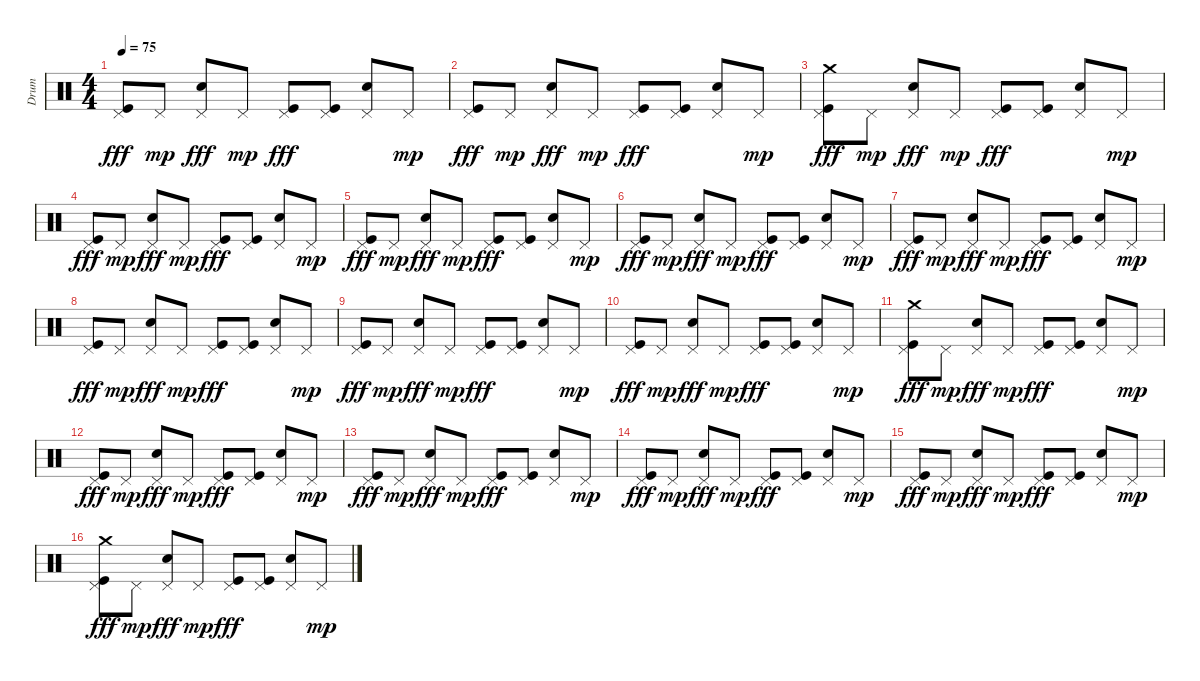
\track ("Drum" "Drum") {instrument percussion}
\staff {score}
\articulation defaults
\ts (4 4)
\tempo 75
\clef neutral
\ks c
("Pedal Hi-Hat (hit)" "Kick (hit)").8{dy fff} "Pedal Hi-Hat (hit)".8{dy mp} ("Pedal Hi-Hat (hit)" "Snare (hit) 2").8{dy fff} "Pedal Hi-Hat (hit)".8{dy mp} ("Pedal Hi-Hat (hit)" "Kick (hit)").8{dy fff} ("Pedal Hi-Hat (hit)" "Kick (hit)").8 ("Pedal Hi-Hat (hit)" "Snare (hit) 2").8 "Pedal Hi-Hat (hit)".8{dy mp} |
("Pedal Hi-Hat (hit)" "Kick (hit)").8{dy fff} "Pedal Hi-Hat (hit)".8{dy mp} ("Pedal Hi-Hat (hit)" "Snare (hit) 2").8{dy fff} "Pedal Hi-Hat (hit)".8{dy mp} ("Pedal Hi-Hat (hit)" "Kick (hit)").8{dy fff} ("Pedal Hi-Hat (hit)" "Kick (hit)").8 ("Pedal Hi-Hat (hit)" "Snare (hit) 2").8 "Pedal Hi-Hat (hit)".8{dy mp} |
("Pedal Hi-Hat (hit)" "Kick (hit)" "Crash medium (hit)").8{dy fff} "Pedal Hi-Hat (hit)".8{dy mp} ("Pedal Hi-Hat (hit)" "Snare (hit) 2").8{dy fff} "Pedal Hi-Hat (hit)".8{dy mp} ("Pedal Hi-Hat (hit)" "Kick (hit)").8{dy fff} ("Pedal Hi-Hat (hit)" "Kick (hit)").8 ("Pedal Hi-Hat (hit)" "Snare (hit) 2").8 "Pedal Hi-Hat (hit)".8{dy mp} |
("Pedal Hi-Hat (hit)" "Kick (hit)").8{dy fff} "Pedal Hi-Hat (hit)".8{dy mp} ("Pedal Hi-Hat (hit)" "Snare (hit) 2").8{dy fff} "Pedal Hi-Hat (hit)".8{dy mp} ("Pedal Hi-Hat (hit)" "Kick (hit)").8{dy fff} ("Pedal Hi-Hat (hit)" "Kick (hit)").8 ("Pedal Hi-Hat (hit)" "Snare (hit) 2").8 "Pedal Hi-Hat (hit)".8{dy mp} |
("Pedal Hi-Hat (hit)" "Kick (hit)").8{dy fff} "Pedal Hi-Hat (hit)".8{dy mp} ("Pedal Hi-Hat (hit)" "Snare (hit) 2").8{dy fff} "Pedal Hi-Hat (hit)".8{dy mp} ("Pedal Hi-Hat (hit)" "Kick (hit)").8{dy fff} ("Pedal Hi-Hat (hit)" "Kick (hit)").8 ("Pedal Hi-Hat (hit)" "Snare (hit) 2").8 "Pedal Hi-Hat (hit)".8{dy mp} |
("Pedal Hi-Hat (hit)" "Kick (hit)").8{dy fff} "Pedal Hi-Hat (hit)".8{dy mp} ("Pedal Hi-Hat (hit)" "Snare (hit) 2").8{dy fff} "Pedal Hi-Hat (hit)".8{dy mp} ("Pedal Hi-Hat (hit)" "Kick (hit)").8{dy fff} ("Pedal Hi-Hat (hit)" "Kick (hit)").8 ("Pedal Hi-Hat (hit)" "Snare (hit) 2").8 "Pedal Hi-Hat (hit)".8{dy mp} |
("Pedal Hi-Hat (hit)" "Kick (hit)").8{dy fff} "Pedal Hi-Hat (hit)".8{dy mp} ("Pedal Hi-Hat (hit)" "Snare (hit) 2").8{dy fff} "Pedal Hi-Hat (hit)".8{dy mp} ("Pedal Hi-Hat (hit)" "Kick (hit)").8{dy fff} ("Pedal Hi-Hat (hit)" "Kick (hit)").8 ("Pedal Hi-Hat (hit)" "Snare (hit) 2").8 "Pedal Hi-Hat (hit)".8{dy mp} |
("Pedal Hi-Hat (hit)" "Kick (hit)").8{dy fff} "Pedal Hi-Hat (hit)".8{dy mp} ("Pedal Hi-Hat (hit)" "Snare (hit) 2").8{dy fff} "Pedal Hi-Hat (hit)".8{dy mp} ("Pedal Hi-Hat (hit)" "Kick (hit)").8{dy fff} ("Pedal Hi-Hat (hit)" "Kick (hit)").8 ("Pedal Hi-Hat (hit)" "Snare (hit) 2").8 "Pedal Hi-Hat (hit)".8{dy mp} |
("Pedal Hi-Hat (hit)" "Kick (hit)").8{dy fff} "Pedal Hi-Hat (hit)".8{dy mp} ("Pedal Hi-Hat (hit)" "Snare (hit) 2").8{dy fff} "Pedal Hi-Hat (hit)".8{dy mp} ("Pedal Hi-Hat (hit)" "Kick (hit)").8{dy fff} ("Pedal Hi-Hat (hit)" "Kick (hit)").8 ("Pedal Hi-Hat (hit)" "Snare (hit) 2").8 "Pedal Hi-Hat (hit)".8{dy mp} |
("Pedal Hi-Hat (hit)" "Kick (hit)").8{dy fff} "Pedal Hi-Hat (hit)".8{dy mp} ("Pedal Hi-Hat (hit)" "Snare (hit) 2").8{dy fff} "Pedal Hi-Hat (hit)".8{dy mp} ("Pedal Hi-Hat (hit)" "Kick (hit)").8{dy fff} ("Pedal Hi-Hat (hit)" "Kick (hit)").8 ("Pedal Hi-Hat (hit)" "Snare (hit) 2").8 "Pedal Hi-Hat (hit)".8{dy mp} |
("Pedal Hi-Hat (hit)" "Kick (hit)" "Crash medium (hit)").8{dy fff} "Pedal Hi-Hat (hit)".8{dy mp} ("Pedal Hi-Hat (hit)" "Snare (hit) 2").8{dy fff} "Pedal Hi-Hat (hit)".8{dy mp} ("Pedal Hi-Hat (hit)" "Kick (hit)").8{dy fff} ("Pedal Hi-Hat (hit)" "Kick (hit)").8 ("Pedal Hi-Hat (hit)" "Snare (hit) 2").8 "Pedal Hi-Hat (hit)".8{dy mp} |
("Pedal Hi-Hat (hit)" "Kick (hit)").8{dy fff} "Pedal Hi-Hat (hit)".8{dy mp} ("Pedal Hi-Hat (hit)" "Snare (hit) 2").8{dy fff} "Pedal Hi-Hat (hit)".8{dy mp} ("Pedal Hi-Hat (hit)" "Kick (hit)").8{dy fff} ("Pedal Hi-Hat (hit)" "Kick (hit)").8 ("Pedal Hi-Hat (hit)" "Snare (hit) 2").8 "Pedal Hi-Hat (hit)".8{dy mp} |
("Pedal Hi-Hat (hit)" "Kick (hit)").8{dy fff} "Pedal Hi-Hat (hit)".8{dy mp} ("Pedal Hi-Hat (hit)" "Snare (hit) 2").8{dy fff} "Pedal Hi-Hat (hit)".8{dy mp} ("Pedal Hi-Hat (hit)" "Kick (hit)").8{dy fff} ("Pedal Hi-Hat (hit)" "Kick (hit)").8 ("Pedal Hi-Hat (hit)" "Snare (hit) 2").8 "Pedal Hi-Hat (hit)".8{dy mp} |
("Pedal Hi-Hat (hit)" "Kick (hit)").8{dy fff} "Pedal Hi-Hat (hit)".8{dy mp} ("Pedal Hi-Hat (hit)" "Snare (hit) 2").8{dy fff} "Pedal Hi-Hat (hit)".8{dy mp} ("Pedal Hi-Hat (hit)" "Kick (hit)").8{dy fff} ("Pedal Hi-Hat (hit)" "Kick (hit)").8 ("Pedal Hi-Hat (hit)" "Snare (hit) 2").8 "Pedal Hi-Hat (hit)".8{dy mp} |
("Pedal Hi-Hat (hit)" "Kick (hit)").8{dy fff} "Pedal Hi-Hat (hit)".8{dy mp} ("Pedal Hi-Hat (hit)" "Snare (hit) 2").8{dy fff} "Pedal Hi-Hat (hit)".8{dy mp} ("Pedal Hi-Hat (hit)" "Kick (hit)").8{dy fff} ("Pedal Hi-Hat (hit)" "Kick (hit)").8 ("Pedal Hi-Hat (hit)" "Snare (hit) 2").8 "Pedal Hi-Hat (hit)".8{dy mp} |
("Pedal Hi-Hat (hit)" "Kick (hit)" "Crash medium (hit)").8{dy fff} "Pedal Hi-Hat (hit)".8{dy mp} ("Pedal Hi-Hat (hit)" "Snare (hit) 2").8{dy fff} "Pedal Hi-Hat (hit)".8{dy mp} ("Pedal Hi-Hat (hit)" "Kick (hit)").8{dy fff} ("Pedal Hi-Hat (hit)" "Kick (hit)").8 ("Pedal Hi-Hat (hit)" "Snare (hit) 2").8 "Pedal Hi-Hat (hit)".8{dy mp}
